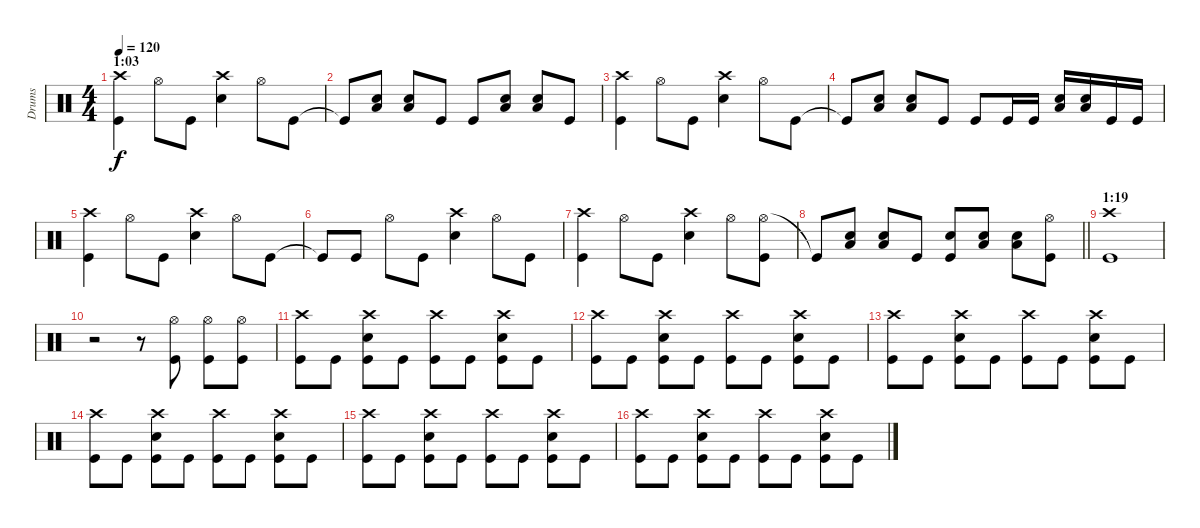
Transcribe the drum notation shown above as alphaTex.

\track ("Drums" "Drums") {instrument percussion}
\staff {score}
\articulation defaults
\ts (4 4)
\section ("" "1:03")
\tempo 120
\clef neutral
\ks c
("Crash high (hit)" "Kick (hit)").4{dy f} "Hi-Hat (open)".8 "Kick (hit)".8 ("Crash high (hit)" "Electric Snare (hit)").4 "Hi-Hat (open)".8 "Kick (hit)".8 |
"Kick (hit)"{t}.8 ("Low Floor Tom (hit)" "Electric Snare (hit)").8 ("Low Floor Tom (hit)" "Electric Snare (hit)").8 "Kick (hit)".8 "Kick (hit)".8 ("Low Floor Tom (hit)" "Electric Snare (hit)").8 ("Low Floor Tom (hit)" "Electric Snare (hit)").8 "Kick (hit)".8 |
("Crash high (hit)" "Kick (hit)").4 "Hi-Hat (open)".8 "Kick (hit)".8 ("Crash high (hit)" "Electric Snare (hit)").4 "Hi-Hat (open)".8 "Kick (hit)".8 |
"Kick (hit)"{t}.8 ("Low Floor Tom (hit)" "Electric Snare (hit)").8 ("Low Floor Tom (hit)" "Electric Snare (hit)").8 "Kick (hit)".8 "Kick (hit)".8 "Kick (hit)".16 "Kick (hit)".16 ("Low Floor Tom (hit)" "Electric Snare (hit)").16 ("Low Floor Tom (hit)" "Electric Snare (hit)").16 "Kick (hit)".16 "Kick (hit)".16 |
("Crash high (hit)" "Kick (hit)").4 "Hi-Hat (open)".8 "Kick (hit)".8 ("Crash high (hit)" "Electric Snare (hit)").4 "Hi-Hat (open)".8 "Kick (hit)".8 |
"Kick (hit)"{t}.8 "Kick (hit)".8 "Hi-Hat (open)".8 "Kick (hit)".8 ("Crash high (hit)" "Electric Snare (hit)").4 "Hi-Hat (open)".8 "Kick (hit)".8 |
("Crash high (hit)" "Kick (hit)").4 "Hi-Hat (open)".8 "Kick (hit)".8 ("Crash high (hit)" "Electric Snare (hit)").4 "Hi-Hat (open)".8 ("Hi-Hat (open)" "Kick (hit)").8 |
\barLineRight lightlight "Kick (hit)"{t}.8
("Low Floor Tom (hit)" "Electric Snare (hit)").8 ("Low Floor Tom (hit)" "Electric Snare (hit)").8 "Kick (hit)".8 ("Electric Snare (hit)" "Kick (hit)").8 ("Low Floor Tom (hit)" "Electric Snare (hit)").8 ("Low Floor Tom (hit)" "Electric Snare (hit)").8 ("Hi-Hat (open)" "Kick (hit)").8 |
\section ("" "1:19")
("Crash high (hit)" "Kick (hit)").1 |
r.2 r.8 ("Hi-Hat (open)" "Kick (hit)").8 ("Hi-Hat (open)" "Kick (hit)").8 ("Hi-Hat (open)" "Kick (hit)").8 |
("Crash high (hit)" "Kick (hit)").8 "Kick (hit)".8 ("Crash high (hit)" "Electric Snare (hit)" "Kick (hit)").8 "Kick (hit)".8 ("Crash high (hit)" "Kick (hit)").8 "Kick (hit)".8 ("Crash high (hit)" "Electric Snare (hit)" "Kick (hit)").8 "Kick (hit)".8 |
("Crash high (hit)" "Kick (hit)").8 "Kick (hit)".8 ("Crash high (hit)" "Electric Snare (hit)" "Kick (hit)").8 "Kick (hit)".8 ("Crash high (hit)" "Kick (hit)").8 "Kick (hit)".8 ("Crash high (hit)" "Electric Snare (hit)" "Kick (hit)").8 "Kick (hit)".8 |
("Crash high (hit)" "Kick (hit)").8 "Kick (hit)".8 ("Crash high (hit)" "Electric Snare (hit)" "Kick (hit)").8 "Kick (hit)".8 ("Crash high (hit)" "Kick (hit)").8 "Kick (hit)".8 ("Crash high (hit)" "Electric Snare (hit)" "Kick (hit)").8 "Kick (hit)".8 |
("Crash high (hit)" "Kick (hit)").8 "Kick (hit)".8 ("Crash high (hit)" "Electric Snare (hit)" "Kick (hit)").8 "Kick (hit)".8 ("Crash high (hit)" "Kick (hit)").8 "Kick (hit)".8 ("Crash high (hit)" "Electric Snare (hit)" "Kick (hit)").8 "Kick (hit)".8 |
("Crash high (hit)" "Kick (hit)").8 "Kick (hit)".8 ("Crash high (hit)" "Electric Snare (hit)" "Kick (hit)").8 "Kick (hit)".8 ("Crash high (hit)" "Kick (hit)").8 "Kick (hit)".8 ("Crash high (hit)" "Electric Snare (hit)" "Kick (hit)").8 "Kick (hit)".8 |
("Crash high (hit)" "Kick (hit)").8 "Kick (hit)".8 ("Crash high (hit)" "Electric Snare (hit)" "Kick (hit)").8 "Kick (hit)".8 ("Crash high (hit)" "Kick (hit)").8 "Kick (hit)".8 ("Crash high (hit)" "Electric Snare (hit)" "Kick (hit)").8 "Kick (hit)".8
